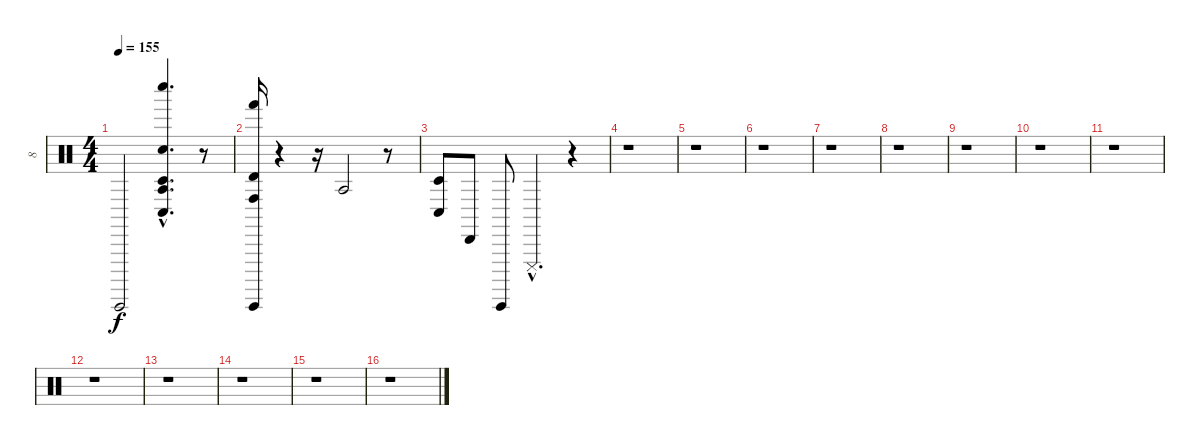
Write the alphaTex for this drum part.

\track ("8" "8") {instrument percussion}
\staff {score}
\articulation defaults
\ts (4 4)
\tempo 155
\clef neutral
\ks c "Guiro (hit)".2{dy f}
("Snare (hit)"{hac} "Whistle low (hit)"{hac} "Timbale low (hit)"{hac} "Conga low (hit)"{hac} "Agogo tow (hit)"{hac}).4{d} r.8 |
("Timbale high (hit)" "Guiro (hit)" "Hand (hit)" "Conga high (hit)").16 r.4 r.16 "Agogo tow (hit)".2 r.8 |
("Conga low (hit)" "Timbale low (hit)").8 "Cabasa (hit)".8 "Guiro (hit)".8 "Cuica (mute)"{hac}.4{d} r.4 |
r.1 |
r.1 |
r.1 |
r.1 |
r.1 |
r.1 |
r.1 |
r.1 |
r.1 |
r.1 |
r.1 |
r.1 |
r.1
